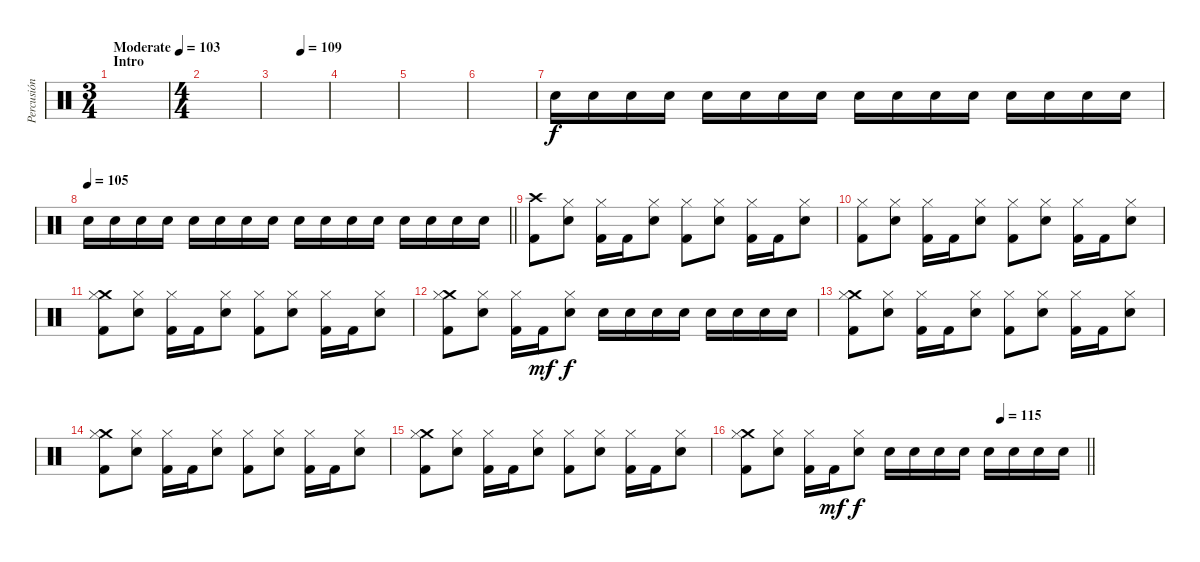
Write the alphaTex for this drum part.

\track ("Percusión" "Percusión") {instrument percussion}
\staff {score}
\articulation defaults
\ts (3 4)
\section ("" "Intro")
\tempo (103 "Moderate")
\clef neutral
\ks c
|
\ts (4 4)
|
\tempo (109 0.5)
|
|
|
|
"Electric Snare (hit)".16{volume 14} "Electric Snare (hit)".16 "Electric Snare (hit)".16 "Electric Snare (hit)".16 "Electric Snare (hit)".16 "Electric Snare (hit)".16 "Electric Snare (hit)".16 "Electric Snare (hit)".16 "Electric Snare (hit)".16 "Electric Snare (hit)".16 "Electric Snare (hit)".16 "Electric Snare (hit)".16 "Electric Snare (hit)".16 "Electric Snare (hit)".16 "Electric Snare (hit)".16 "Electric Snare (hit)".16 |
\tempo 105
\barLineRight lightlight "Electric Snare (hit)".16 "Electric Snare (hit)".16 "Electric Snare (hit)".16 "Electric Snare (hit)".16 "Electric Snare (hit)".16 "Electric Snare (hit)".16 "Electric Snare (hit)".16 "Electric Snare (hit)".16 "Electric Snare (hit)".16 "Electric Snare (hit)".16 "Electric Snare (hit)".16 "Electric Snare (hit)".16 "Electric Snare (hit)".16 "Electric Snare (hit)".16 "Electric Snare (hit)".16 "Electric Snare (hit)".16
|
\section ("" "")
("Crash high (hit)" "Kick (hit) 2").8{volume 12} ("Hi-Hat (closed)" "Electric Snare (hit)").8 ("Hi-Hat (closed)" "Kick (hit) 2").16 "Kick (hit) 2".16 ("Hi-Hat (closed)" "Electric Snare (hit)").8 ("Hi-Hat (closed)" "Kick (hit) 2").8 ("Hi-Hat (closed)" "Electric Snare (hit)").8 ("Hi-Hat (closed)" "Kick (hit) 2").16 "Kick (hit) 2".16 ("Hi-Hat (closed)" "Electric Snare (hit)").8 |
("Hi-Hat (closed)" "Kick (hit) 2").8 ("Hi-Hat (closed)" "Electric Snare (hit)").8 ("Hi-Hat (closed)" "Kick (hit) 2").16 "Kick (hit) 2".16 ("Hi-Hat (closed)" "Electric Snare (hit)").8 ("Hi-Hat (closed)" "Kick (hit) 2").8 ("Hi-Hat (closed)" "Electric Snare (hit)").8 ("Hi-Hat (closed)" "Kick (hit) 2").16 "Kick (hit) 2".16 ("Hi-Hat (closed)" "Electric Snare (hit)").8 |
("Crash medium (hit)" "Hi-Hat (closed)" "Kick (hit) 2").8 ("Hi-Hat (closed)" "Electric Snare (hit)").8 ("Hi-Hat (closed)" "Kick (hit) 2").16 "Kick (hit) 2".16 ("Hi-Hat (closed)" "Electric Snare (hit)").8 ("Hi-Hat (closed)" "Kick (hit) 2").8 ("Hi-Hat (closed)" "Electric Snare (hit)").8 ("Hi-Hat (closed)" "Kick (hit) 2").16 "Kick (hit) 2".16 ("Hi-Hat (closed)" "Electric Snare (hit)").8 |
("Crash medium (hit)" "Hi-Hat (closed)" "Kick (hit) 2").8 ("Hi-Hat (closed)" "Electric Snare (hit)").8 ("Hi-Hat (closed)" "Kick (hit) 2").16 "Kick (hit) 2".16{dy mf} ("Hi-Hat (closed)" "Electric Snare (hit)").8{dy f} "Electric Snare (hit)".16 "Electric Snare (hit)".16 "Electric Snare (hit)".16 "Electric Snare (hit)".16 "Electric Snare (hit)".16 "Electric Snare (hit)".16 "Electric Snare (hit)".16 "Electric Snare (hit)".16 |
("Crash medium (hit)" "Hi-Hat (closed)" "Kick (hit) 2").8 ("Hi-Hat (closed)" "Electric Snare (hit)").8 ("Hi-Hat (closed)" "Kick (hit) 2").16 "Kick (hit) 2".16 ("Hi-Hat (closed)" "Electric Snare (hit)").8 ("Hi-Hat (closed)" "Kick (hit) 2").8 ("Hi-Hat (closed)" "Electric Snare (hit)").8 ("Hi-Hat (closed)" "Kick (hit) 2").16 "Kick (hit) 2".16 ("Hi-Hat (closed)" "Electric Snare (hit)").8 |
("Crash medium (hit)" "Hi-Hat (closed)" "Kick (hit) 2").8 ("Hi-Hat (closed)" "Electric Snare (hit)").8 ("Hi-Hat (closed)" "Kick (hit) 2").16 "Kick (hit) 2".16 ("Hi-Hat (closed)" "Electric Snare (hit)").8 ("Hi-Hat (closed)" "Kick (hit) 2").8 ("Hi-Hat (closed)" "Electric Snare (hit)").8 ("Hi-Hat (closed)" "Kick (hit) 2").16 "Kick (hit) 2".16 ("Hi-Hat (closed)" "Electric Snare (hit)").8 |
("Crash medium (hit)" "Hi-Hat (closed)" "Kick (hit) 2").8 ("Hi-Hat (closed)" "Electric Snare (hit)").8 ("Hi-Hat (closed)" "Kick (hit) 2").16 "Kick (hit) 2".16 ("Hi-Hat (closed)" "Electric Snare (hit)").8 ("Hi-Hat (closed)" "Kick (hit) 2").8 ("Hi-Hat (closed)" "Electric Snare (hit)").8 ("Hi-Hat (closed)" "Kick (hit) 2").16 "Kick (hit) 2".16 ("Hi-Hat (closed)" "Electric Snare (hit)").8 |
\tempo (115 0.75)
\barLineRight lightlight
("Crash medium (hit)" "Hi-Hat (closed)" "Kick (hit) 2").8 ("Hi-Hat (closed)" "Electric Snare (hit)").8 ("Hi-Hat (closed)" "Kick (hit) 2").16 "Kick (hit) 2".16{dy mf} ("Hi-Hat (closed)" "Electric Snare (hit)").8{dy f} "Electric Snare (hit)".16 "Electric Snare (hit)".16 "Electric Snare (hit)".16 "Electric Snare (hit)".16 "Electric Snare (hit)".16 "Electric Snare (hit)".16 "Electric Snare (hit)".16 "Electric Snare (hit)".16
